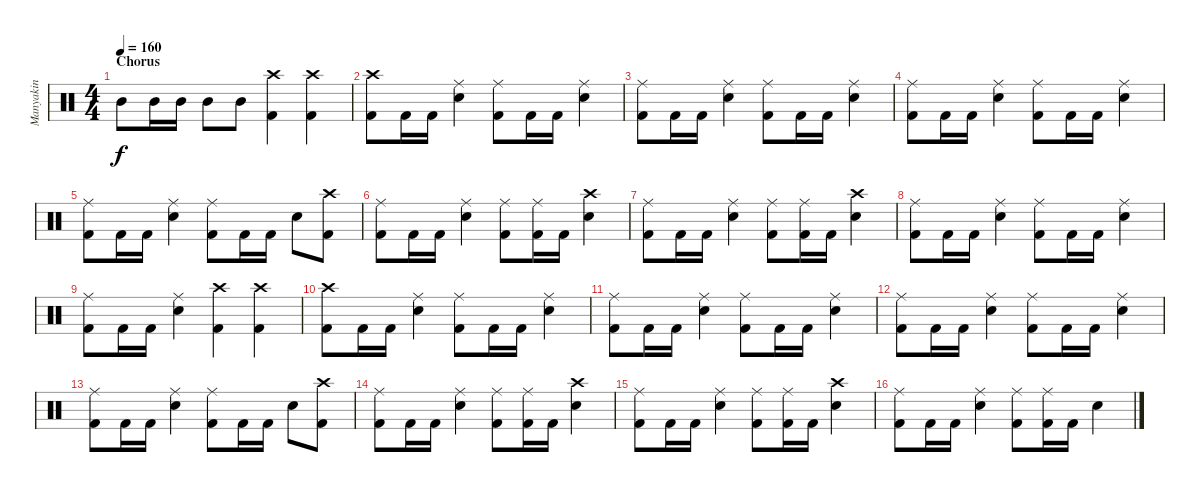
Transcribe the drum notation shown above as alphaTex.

\track ("Manyakin" "Manyakin") {instrument percussion}
\staff {score}
\articulation defaults
\ts (4 4)
\section ("" "Chorus")
\tempo 160
\clef neutral
\ks c "Mid Tom (hit)".8{dy f} "Mid Tom (hit)".16 "Mid Tom (hit)".16 "Mid Tom (hit)".8 "Mid Tom (hit)".8
("Kick (hit) 2" "Crash high (hit)").4 ("Crash high (hit)" "Kick (hit) 2").4 |
("Kick (hit) 2" "Crash high (hit)").8 "Kick (hit) 2".16 "Kick (hit) 2".16 ("Snare (hit) 2" "Ride (middle)").4 ("Kick (hit) 2" "Ride (middle)").8 "Kick (hit) 2".16 "Kick (hit) 2".16 ("Snare (hit) 2" "Ride (middle)").4 |
("Kick (hit) 2" "Ride (middle)").8 "Kick (hit) 2".16 "Kick (hit) 2".16 ("Snare (hit) 2" "Ride (middle)").4 ("Kick (hit) 2" "Ride (middle)").8 "Kick (hit) 2".16 "Kick (hit) 2".16 ("Snare (hit) 2" "Ride (middle)").4 |
("Kick (hit) 2" "Ride (middle)").8 "Kick (hit) 2".16 "Kick (hit) 2".16 ("Snare (hit) 2" "Ride (middle)").4 ("Kick (hit) 2" "Ride (middle)").8 "Kick (hit) 2".16 "Kick (hit) 2".16 ("Snare (hit) 2" "Ride (middle)").4 |
("Kick (hit) 2" "Ride (middle)").8 "Kick (hit) 2".16 "Kick (hit) 2".16 ("Snare (hit) 2" "Ride (middle)").4 ("Kick (hit) 2" "Ride (middle)").8 "Kick (hit) 2".16 "Kick (hit) 2".16 "Snare (hit) 2".8 ("Kick (hit) 2" "Crash high (hit)").8 |
("Kick (hit) 2" "Ride (middle)").8 "Kick (hit) 2".16 "Kick (hit) 2".16 ("Snare (hit) 2" "Ride (middle)").4 ("Kick (hit) 2" "Ride (middle)").8 ("Kick (hit) 2" "Ride (middle)").16 "Kick (hit) 2".16 ("Snare (hit) 2" "Crash high (hit)").4 |
("Kick (hit) 2" "Ride (middle)").8 "Kick (hit) 2".16 "Kick (hit) 2".16 ("Snare (hit) 2" "Ride (middle)").4 ("Kick (hit) 2" "Ride (middle)").8 ("Kick (hit) 2" "Ride (middle)").16 "Kick (hit) 2".16 ("Snare (hit) 2" "Crash high (hit)").4 |
("Kick (hit) 2" "Ride (middle)").8 "Kick (hit) 2".16 "Kick (hit) 2".16 ("Snare (hit) 2" "Ride (middle)").4 ("Kick (hit) 2" "Ride (middle)").8 "Kick (hit) 2".16 "Kick (hit) 2".16 ("Snare (hit) 2" "Ride (middle)").4 |
("Kick (hit) 2" "Ride (middle)").8 "Kick (hit) 2".16 "Kick (hit) 2".16 ("Snare (hit) 2" "Ride (middle)").4 ("Kick (hit) 2" "Crash high (hit)").4 ("Kick (hit) 2" "Crash high (hit)").4 |
("Kick (hit) 2" "Crash high (hit)").8 "Kick (hit) 2".16 "Kick (hit) 2".16 ("Snare (hit) 2" "Ride (middle)").4 ("Kick (hit) 2" "Ride (middle)").8 "Kick (hit) 2".16 "Kick (hit) 2".16 ("Snare (hit) 2" "Ride (middle)").4 |
("Kick (hit) 2" "Ride (middle)").8 "Kick (hit) 2".16 "Kick (hit) 2".16 ("Snare (hit) 2" "Ride (middle)").4 ("Kick (hit) 2" "Ride (middle)").8 "Kick (hit) 2".16 "Kick (hit) 2".16 ("Snare (hit) 2" "Ride (middle)").4 |
("Kick (hit) 2" "Ride (middle)").8 "Kick (hit) 2".16 "Kick (hit) 2".16 ("Snare (hit) 2" "Ride (middle)").4 ("Kick (hit) 2" "Ride (middle)").8 "Kick (hit) 2".16 "Kick (hit) 2".16 ("Snare (hit) 2" "Ride (middle)").4 |
("Kick (hit) 2" "Ride (middle)").8 "Kick (hit) 2".16 "Kick (hit) 2".16 ("Snare (hit) 2" "Ride (middle)").4 ("Kick (hit) 2" "Ride (middle)").8 "Kick (hit) 2".16 "Kick (hit) 2".16 "Snare (hit) 2".8 ("Kick (hit) 2" "Crash high (hit)").8 |
("Kick (hit) 2" "Ride (middle)").8 "Kick (hit) 2".16 "Kick (hit) 2".16 ("Snare (hit) 2" "Ride (middle)").4 ("Kick (hit) 2" "Ride (middle)").8 ("Kick (hit) 2" "Ride (middle)").16 "Kick (hit) 2".16 ("Snare (hit) 2" "Crash high (hit)").4 |
("Kick (hit) 2" "Ride (middle)").8 "Kick (hit) 2".16 "Kick (hit) 2".16 ("Snare (hit) 2" "Ride (middle)").4 ("Kick (hit) 2" "Ride (middle)").8 ("Kick (hit) 2" "Ride (middle)").16 "Kick (hit) 2".16 ("Snare (hit) 2" "Crash high (hit)").4 |
("Kick (hit) 2" "Ride (middle)").8 "Kick (hit) 2".16 "Kick (hit) 2".16 ("Snare (hit) 2" "Ride (middle)").4 ("Kick (hit) 2" "Ride (middle)").8 ("Kick (hit) 2" "Ride (middle)").16 "Kick (hit) 2".16 "Snare (hit) 2".4
